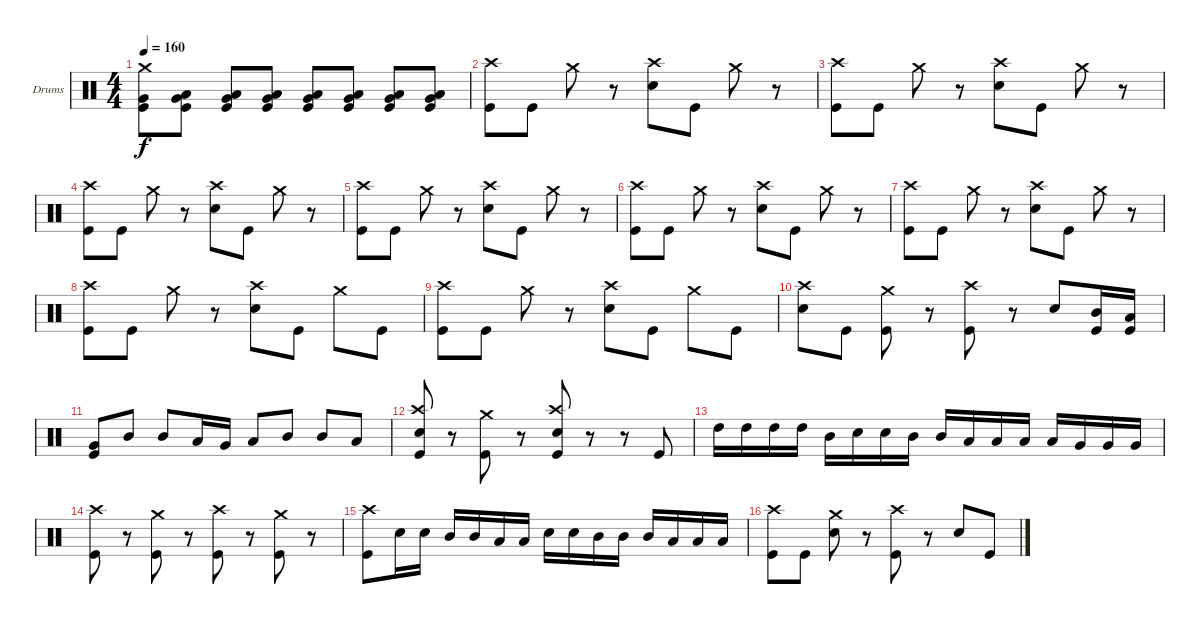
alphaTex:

\bracketExtendMode groupsimilarinstruments
\firstSystemTrackNameOrientation horizontal
\otherSystemsTrackNameOrientation horizontal
\track ("Drumkit" "Drums") {instrument percussion}
\staff {score}
\articulation defaults
\ts (4 4)
\tempo 160
\clef neutral
\ks c
("Crash medium (hit)" "Very Low Tom (hit)" "Kick (hit)").8{dy f} ("Low Tom (hit)" "Very Low Tom (hit)" "Kick (hit)").8 ("Low Tom (hit)" "Very Low Tom (hit)" "Kick (hit)").8 ("Low Tom (hit)" "Very Low Tom (hit)" "Kick (hit)").8 ("Low Tom (hit)" "Very Low Tom (hit)" "Kick (hit)").8 ("Low Tom (hit)" "Very Low Tom (hit)" "Kick (hit)").8 ("Low Tom (hit)" "Very Low Tom (hit)" "Kick (hit)").8 ("Low Tom (hit)" "Very Low Tom (hit)" "Kick (hit)").8 |
("Crash high (hit)" "Kick (hit)").8 "Kick (hit)".8 "Crash medium (hit)".8 r.8 ("Crash high (hit)" "Snare (hit) 2").8 "Kick (hit)".8 "Crash medium (hit)".8 r.8 |
("Crash high (hit)" "Kick (hit)").8 "Kick (hit)".8 "Crash medium (hit)".8 r.8 ("Crash high (hit)" "Snare (hit) 2").8 "Kick (hit)".8 "Crash medium (hit)".8 r.8 |
("Crash high (hit)" "Kick (hit)").8 "Kick (hit)".8 "Crash medium (hit)".8 r.8 ("Crash high (hit)" "Snare (hit) 2").8 "Kick (hit)".8 "Crash medium (hit)".8 r.8 |
("Crash high (hit)" "Kick (hit)").8 "Kick (hit)".8 "Crash medium (hit)".8 r.8 ("Crash high (hit)" "Snare (hit) 2").8 "Kick (hit)".8 "Crash medium (hit)".8 r.8 |
("Crash high (hit)" "Kick (hit)").8 "Kick (hit)".8 "Crash medium (hit)".8 r.8 ("Crash high (hit)" "Snare (hit) 2").8 "Kick (hit)".8 "Crash medium (hit)".8 r.8 |
("Crash high (hit)" "Kick (hit)").8 "Kick (hit)".8 "Crash medium (hit)".8 r.8 ("Crash high (hit)" "Snare (hit) 2").8 "Kick (hit)".8 "Crash medium (hit)".8 r.8 |
("Crash high (hit)" "Kick (hit)").8 "Kick (hit)".8 "Crash medium (hit)".8 r.8 ("Crash high (hit)" "Snare (hit) 2").8 "Kick (hit)".8 "Crash medium (hit)".8 "Kick (hit)".8 |
("Crash high (hit)" "Kick (hit)").8 "Kick (hit)".8 "Crash medium (hit)".8 r.8 ("Crash high (hit)" "Snare (hit) 2").8 "Kick (hit)".8 "Crash medium (hit)".8 "Kick (hit)".8 |
("Crash high (hit)" "Snare (hit) 2").8 "Kick (hit)".8 ("Crash medium (hit)" "Kick (hit)").8 r.8 ("Crash high (hit)" "Kick (hit)").8 r.8 "Snare (hit) 2".8 ("Mid Tom (hit)" "Kick (hit)").16 ("Low Tom (hit)" "Kick (hit)").16 |
("Very Low Tom (hit)" "Kick (hit)").8 "Mid Tom (hit)".8 "Mid Tom (hit)".8 "Low Tom (hit)".16 "Very Low Tom (hit)".16 "Low Tom (hit)".8 "Mid Tom (hit)".8 "Mid Tom (hit)".8 "Low Tom (hit)".8 |
("Crash high (hit)" "Snare (hit) 2" "Kick (hit)").8 r.8 ("Crash medium (hit)" "Kick (hit)").8 r.8 ("Crash high (hit)" "Snare (hit) 2" "Kick (hit)").8 r.8 r.8 "Kick (hit)".8 |
"High Tom (hit)".16 "High Tom (hit)".16 "High Tom (hit)".16 "High Tom (hit)".16 "Mid Tom (hit)".16 "Snare (hit) 2".16 "Snare (hit) 2".16 "Mid Tom (hit)".16 "Mid Tom (hit)".16 "Low Tom (hit)".16 "Low Tom (hit)".16 "Low Tom (hit)".16 "Low Tom (hit)".16 "Very Low Tom (hit)".16 "Very Low Tom (hit)".16 "Very Low Tom (hit)".16 |
("Crash high (hit)" "Kick (hit)").8 r.8 ("Crash medium (hit)" "Kick (hit)").8 r.8 ("Crash high (hit)" "Kick (hit)").8 r.8 ("Crash medium (hit)" "Kick (hit)").8 r.8 |
("Crash high (hit)" "Kick (hit)").8 "Snare (hit) 2".16 "Snare (hit) 2".16 "Mid Tom (hit)".16 "Mid Tom (hit)".16 "Low Tom (hit)".16 "Low Tom (hit)".16 "Snare (hit) 2".16 "Snare (hit) 2".16 "Mid Tom (hit)".16 "Mid Tom (hit)".16 "Mid Tom (hit)".16 "Low Tom (hit)".16 "Low Tom (hit)".16 "Low Tom (hit)".16 |
("Crash high (hit)" "Kick (hit)").8 "Kick (hit)".8 ("Crash medium (hit)" "Snare (hit) 2").8 r.8 ("Crash high (hit)" "Kick (hit)").8 r.8 "Snare (hit) 2".8 "Kick (hit)".8
